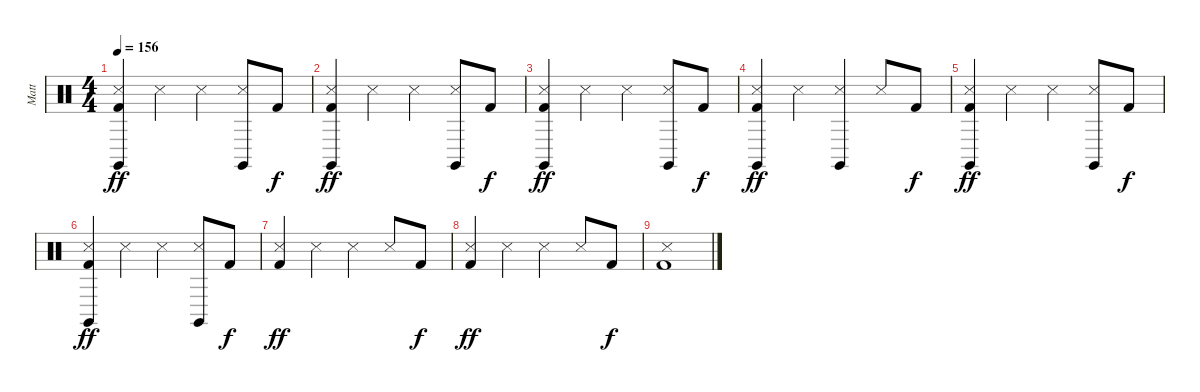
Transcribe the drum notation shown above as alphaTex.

\track ("Matt" "Matt") {instrument percussion}
\staff {score}
\articulation defaults
\ts (4 4)
\tempo 156
\clef neutral
\ks c
("Claves (hit)" "Snare (side stick) 3" "Kick (hit) 2").4{dy ff} "Snare (side stick) 3".4 "Snare (side stick) 3".4 ("Claves (hit)" "Snare (side stick) 3").8 "Kick (hit) 2".8{dy f} |
("Claves (hit)" "Snare (side stick) 3" "Kick (hit) 2").4{dy ff} "Snare (side stick) 3".4 "Snare (side stick) 3".4 ("Claves (hit)" "Snare (side stick) 3").8 "Kick (hit) 2".8{dy f} |
("Claves (hit)" "Snare (side stick) 3" "Kick (hit) 2").4{dy ff} "Snare (side stick) 3".4 "Snare (side stick) 3".4 ("Claves (hit)" "Snare (side stick) 3").8 "Kick (hit) 2".8{dy f} |
("Claves (hit)" "Snare (side stick) 3" "Kick (hit) 2").4{dy ff} "Snare (side stick) 3".4 ("Claves (hit)" "Snare (side stick) 3").4 "Snare (side stick) 3".8 "Kick (hit) 2".8{dy f} |
("Claves (hit)" "Snare (side stick) 3" "Kick (hit) 2").4{dy ff} "Snare (side stick) 3".4 "Snare (side stick) 3".4 ("Claves (hit)" "Snare (side stick) 3").8 "Kick (hit) 2".8{dy f} |
("Claves (hit)" "Snare (side stick) 3" "Kick (hit) 2").4{dy ff} "Snare (side stick) 3".4 "Snare (side stick) 3".4 ("Claves (hit)" "Snare (side stick) 3").8 "Kick (hit) 2".8{dy f} |
("Snare (side stick) 3" "Kick (hit) 2").4{dy ff} "Snare (side stick) 3".4 "Snare (side stick) 3".4 "Snare (side stick) 3".8 "Kick (hit) 2".8{dy f} |
("Snare (side stick) 3" "Kick (hit) 2").4{dy ff} "Snare (side stick) 3".4 "Snare (side stick) 3".4 "Snare (side stick) 3".8 "Kick (hit) 2".8{dy f} |
("Snare (side stick) 3" "Kick (hit) 2").1
